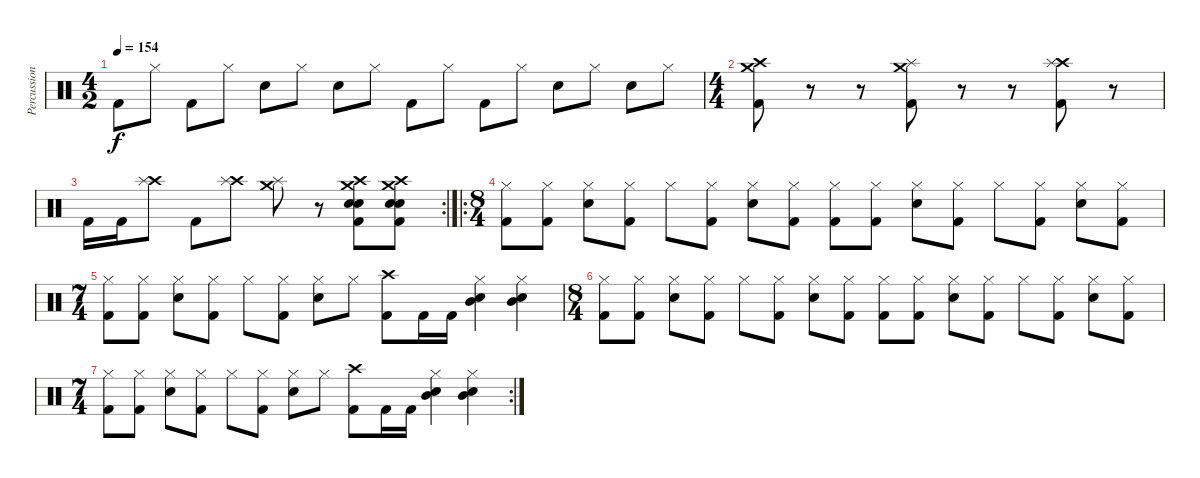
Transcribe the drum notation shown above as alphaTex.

\track ("Percussion" "Percussion") {instrument percussion}
\staff {score}
\articulation defaults
\ts (4 2)
\tempo 154
\clef neutral
\ks c "Kick (hit) 2".8{dy f} "Hi-Hat (closed)".8 "Kick (hit) 2".8 "Hi-Hat (closed)".8 "Snare (hit) 2".8 "Hi-Hat (closed)".8 "Snare (hit) 2".8 "Hi-Hat (closed)".8 "Kick (hit) 2".8 "Hi-Hat (closed)".8 "Kick (hit) 2".8 "Hi-Hat (closed)".8 "Snare (hit) 2".8 "Hi-Hat (closed)".8 "Snare (hit) 2".8 "Hi-Hat (closed)".8
|
\ts (4 4)
("Crash high (hit)" "Crash medium (hit)" "Kick (hit) 2").8 r.8 r.8 ("Crash medium (hit)" "Splash (hit)" "Kick (hit) 2").8 r.8 r.8 ("Crash high (hit)" "Splash (hit)" "Kick (hit) 2").8 r.8 |
\rc 2 "Kick (hit) 2".16 "Kick (hit) 2".16
("Crash high (hit)" "Splash (hit)").8 "Kick (hit) 2".8 ("Crash high (hit)" "Splash (hit)").8 ("Crash medium (hit)" "Splash (hit)").8 r.8 ("Crash high (hit)" "Crash medium (hit)" "Snare (hit) 2" "Snare (hit) 2" "Kick (hit) 2").8 ("Crash medium (hit)" "Crash high (hit)" "Snare (hit) 2" "Snare (hit) 2" "Kick (hit) 2").8 |
\ro
\ts (8 4)
("Hi-Hat (closed)" "Kick (hit) 2").8 ("Hi-Hat (closed)" "Kick (hit) 2").8 ("Hi-Hat (closed)" "Snare (hit) 2").8 ("Hi-Hat (closed)" "Kick (hit) 2").8 "Hi-Hat (closed)".8 ("Hi-Hat (closed)" "Kick (hit) 2").8 ("Hi-Hat (closed)" "Snare (hit) 2").8 ("Hi-Hat (closed)" "Kick (hit) 2").8 ("Hi-Hat (closed)" "Kick (hit) 2").8 ("Hi-Hat (closed)" "Kick (hit) 2").8 ("Hi-Hat (closed)" "Snare (hit) 2").8 ("Hi-Hat (closed)" "Kick (hit) 2").8 "Hi-Hat (closed)".8 ("Hi-Hat (closed)" "Kick (hit) 2").8 ("Hi-Hat (closed)" "Snare (hit) 2").8 ("Hi-Hat (closed)" "Kick (hit) 2").8 |
\ts (7 4)
("Hi-Hat (closed)" "Kick (hit) 2").8 ("Hi-Hat (closed)" "Kick (hit) 2").8 ("Hi-Hat (closed)" "Snare (hit) 2").8 ("Hi-Hat (closed)" "Kick (hit) 2").8 "Hi-Hat (closed)".8 ("Hi-Hat (closed)" "Kick (hit) 2").8 ("Hi-Hat (closed)" "Snare (hit) 2").8 "Hi-Hat (closed)".8 ("Crash high (hit)" "Kick (hit) 2").8 "Kick (hit) 2".16 "Kick (hit) 2".16 ("Hi-Hat (closed)" "Snare (hit) 2" "Mid Tom (hit)").4 ("Hi-Hat (closed)" "Snare (hit) 2" "Mid Tom (hit)").4 |
\ts (8 4)
("Hi-Hat (closed)" "Kick (hit) 2").8 ("Hi-Hat (closed)" "Kick (hit) 2").8 ("Hi-Hat (closed)" "Snare (hit) 2").8 ("Hi-Hat (closed)" "Kick (hit) 2").8 "Hi-Hat (closed)".8 ("Hi-Hat (closed)" "Kick (hit) 2").8 ("Hi-Hat (closed)" "Snare (hit) 2").8 ("Hi-Hat (closed)" "Kick (hit) 2").8 ("Hi-Hat (closed)" "Kick (hit) 2").8 ("Hi-Hat (closed)" "Kick (hit) 2").8 ("Hi-Hat (closed)" "Snare (hit) 2").8 ("Hi-Hat (closed)" "Kick (hit) 2").8 "Hi-Hat (closed)".8 ("Hi-Hat (closed)" "Kick (hit) 2").8 ("Hi-Hat (closed)" "Snare (hit) 2").8 ("Hi-Hat (closed)" "Kick (hit) 2").8 |
\rc 2
\ts (7 4)
("Hi-Hat (closed)" "Kick (hit) 2").8 ("Hi-Hat (closed)" "Kick (hit) 2").8 ("Hi-Hat (closed)" "Snare (hit) 2").8 ("Hi-Hat (closed)" "Kick (hit) 2").8 "Hi-Hat (closed)".8 ("Hi-Hat (closed)" "Kick (hit) 2").8 ("Hi-Hat (closed)" "Snare (hit) 2").8 "Hi-Hat (closed)".8 ("Crash high (hit)" "Kick (hit) 2").8 "Kick (hit) 2".16 "Kick (hit) 2".16 ("Hi-Hat (closed)" "Snare (hit) 2" "Mid Tom (hit)").4 ("Hi-Hat (closed)" "Snare (hit) 2" "Mid Tom (hit)").4
